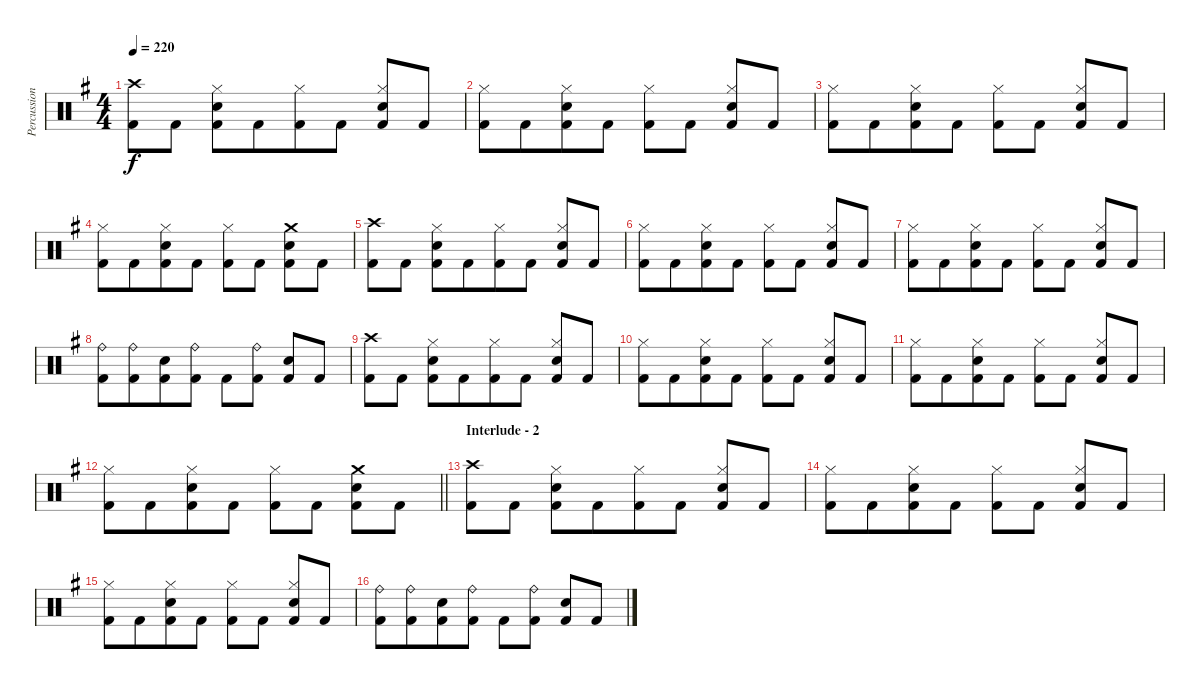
\track ("Percussion" "Percussion") {instrument percussion}
\staff {score}
\articulation defaults
\ts (4 4)
\tempo 220
\clef neutral
\ks eminor
("Crash high (hit)" "Kick (hit) 2").8{dy f beam merge} "Kick (hit) 2".8 ("Hi-Hat (closed)" "Snare (hit) 2" "Kick (hit) 2").8{beam merge} "Kick (hit) 2".8{beam merge} ("Hi-Hat (closed)" "Kick (hit) 2").8 "Kick (hit) 2".8 ("Hi-Hat (closed)" "Snare (hit) 2" "Kick (hit) 2").8{beam merge} "Kick (hit) 2".8 |
("Hi-Hat (closed)" "Kick (hit) 2").8 "Kick (hit) 2".8{beam merge} ("Hi-Hat (closed)" "Snare (hit) 2" "Kick (hit) 2").8{beam merge} "Kick (hit) 2".8 ("Hi-Hat (closed)" "Kick (hit) 2").8{beam merge} "Kick (hit) 2".8 ("Hi-Hat (closed)" "Snare (hit) 2" "Kick (hit) 2").8 "Kick (hit) 2".8 |
("Hi-Hat (closed)" "Kick (hit) 2").8 "Kick (hit) 2".8{beam merge} ("Hi-Hat (closed)" "Snare (hit) 2" "Kick (hit) 2").8{beam merge} "Kick (hit) 2".8 ("Hi-Hat (closed)" "Kick (hit) 2").8{beam merge} "Kick (hit) 2".8 ("Hi-Hat (closed)" "Snare (hit) 2" "Kick (hit) 2").8 "Kick (hit) 2".8 |
("Hi-Hat (closed)" "Kick (hit) 2").8 "Kick (hit) 2".8{beam merge} ("Hi-Hat (closed)" "Snare (hit) 2" "Kick (hit) 2").8{beam merge} "Kick (hit) 2".8 ("Hi-Hat (closed)" "Kick (hit) 2").8{beam merge} "Kick (hit) 2".8 ("Crash medium (hit)" "Snare (hit) 2" "Kick (hit) 2").8 "Kick (hit) 2".8 |
("Crash high (hit)" "Kick (hit) 2").8{beam merge} "Kick (hit) 2".8 ("Hi-Hat (closed)" "Snare (hit) 2" "Kick (hit) 2").8{beam merge} "Kick (hit) 2".8{beam merge} ("Hi-Hat (closed)" "Kick (hit) 2").8 "Kick (hit) 2".8 ("Hi-Hat (closed)" "Snare (hit) 2" "Kick (hit) 2").8{beam merge} "Kick (hit) 2".8 |
("Hi-Hat (closed)" "Kick (hit) 2").8 "Kick (hit) 2".8{beam merge} ("Hi-Hat (closed)" "Snare (hit) 2" "Kick (hit) 2").8{beam merge} "Kick (hit) 2".8 ("Hi-Hat (closed)" "Kick (hit) 2").8{beam merge} "Kick (hit) 2".8 ("Hi-Hat (closed)" "Snare (hit) 2" "Kick (hit) 2").8 "Kick (hit) 2".8 |
("Hi-Hat (closed)" "Kick (hit) 2").8 "Kick (hit) 2".8{beam merge} ("Hi-Hat (closed)" "Snare (hit) 2" "Kick (hit) 2").8{beam merge} "Kick (hit) 2".8 ("Hi-Hat (closed)" "Kick (hit) 2").8{beam merge} "Kick (hit) 2".8 ("Hi-Hat (closed)" "Snare (hit) 2" "Kick (hit) 2").8 "Kick (hit) 2".8 |
("Ride (bell)" "Kick (hit) 2").8 ("Ride (bell)" "Kick (hit) 2").8{beam merge} ("Snare (hit) 2" "Kick (hit) 2").8{beam merge} ("Ride (bell)" "Kick (hit) 2").8 "Kick (hit) 2".8{beam merge} ("Ride (bell)" "Kick (hit) 2").8 ("Snare (hit) 2" "Kick (hit) 2").8 "Kick (hit) 2".8 |
("Crash high (hit)" "Kick (hit) 2").8{beam merge} "Kick (hit) 2".8 ("Hi-Hat (closed)" "Snare (hit) 2" "Kick (hit) 2").8{beam merge} "Kick (hit) 2".8{beam merge} ("Hi-Hat (closed)" "Kick (hit) 2").8 "Kick (hit) 2".8 ("Hi-Hat (closed)" "Snare (hit) 2" "Kick (hit) 2").8{beam merge} "Kick (hit) 2".8 |
("Hi-Hat (closed)" "Kick (hit) 2").8 "Kick (hit) 2".8{beam merge} ("Hi-Hat (closed)" "Snare (hit) 2" "Kick (hit) 2").8{beam merge} "Kick (hit) 2".8 ("Hi-Hat (closed)" "Kick (hit) 2").8{beam merge} "Kick (hit) 2".8 ("Hi-Hat (closed)" "Snare (hit) 2" "Kick (hit) 2").8 "Kick (hit) 2".8 |
("Hi-Hat (closed)" "Kick (hit) 2").8 "Kick (hit) 2".8{beam merge} ("Hi-Hat (closed)" "Snare (hit) 2" "Kick (hit) 2").8{beam merge} "Kick (hit) 2".8 ("Hi-Hat (closed)" "Kick (hit) 2").8{beam merge} "Kick (hit) 2".8 ("Hi-Hat (closed)" "Snare (hit) 2" "Kick (hit) 2").8 "Kick (hit) 2".8 |
\barLineRight lightlight
("Hi-Hat (closed)" "Kick (hit) 2").8 "Kick (hit) 2".8{beam merge} ("Hi-Hat (closed)" "Snare (hit) 2" "Kick (hit) 2").8{beam merge} "Kick (hit) 2".8 ("Hi-Hat (closed)" "Kick (hit) 2").8{beam merge} "Kick (hit) 2".8 ("Crash medium (hit)" "Snare (hit) 2" "Kick (hit) 2").8 "Kick (hit) 2".8 |
\section ("" "Interlude - 2")
("Crash high (hit)" "Kick (hit) 2").8{beam merge} "Kick (hit) 2".8 ("Hi-Hat (closed)" "Snare (hit) 2" "Kick (hit) 2").8{beam merge} "Kick (hit) 2".8{beam merge} ("Hi-Hat (closed)" "Kick (hit) 2").8 "Kick (hit) 2".8 ("Hi-Hat (closed)" "Snare (hit) 2" "Kick (hit) 2").8{beam merge} "Kick (hit) 2".8 |
("Hi-Hat (closed)" "Kick (hit) 2").8 "Kick (hit) 2".8{beam merge} ("Hi-Hat (closed)" "Snare (hit) 2" "Kick (hit) 2").8{beam merge} "Kick (hit) 2".8 ("Hi-Hat (closed)" "Kick (hit) 2").8{beam merge} "Kick (hit) 2".8 ("Hi-Hat (closed)" "Snare (hit) 2" "Kick (hit) 2").8 "Kick (hit) 2".8 |
("Hi-Hat (closed)" "Kick (hit) 2").8 "Kick (hit) 2".8{beam merge} ("Hi-Hat (closed)" "Snare (hit) 2" "Kick (hit) 2").8{beam merge} "Kick (hit) 2".8 ("Hi-Hat (closed)" "Kick (hit) 2").8{beam merge} "Kick (hit) 2".8 ("Hi-Hat (closed)" "Snare (hit) 2" "Kick (hit) 2").8 "Kick (hit) 2".8 |
("Ride (bell)" "Kick (hit) 2").8 ("Ride (bell)" "Kick (hit) 2").8{beam merge} ("Snare (hit) 2" "Kick (hit) 2").8{beam merge} ("Ride (bell)" "Kick (hit) 2").8 "Kick (hit) 2".8{beam merge} ("Ride (bell)" "Kick (hit) 2").8 ("Snare (hit) 2" "Kick (hit) 2").8 "Kick (hit) 2".8
